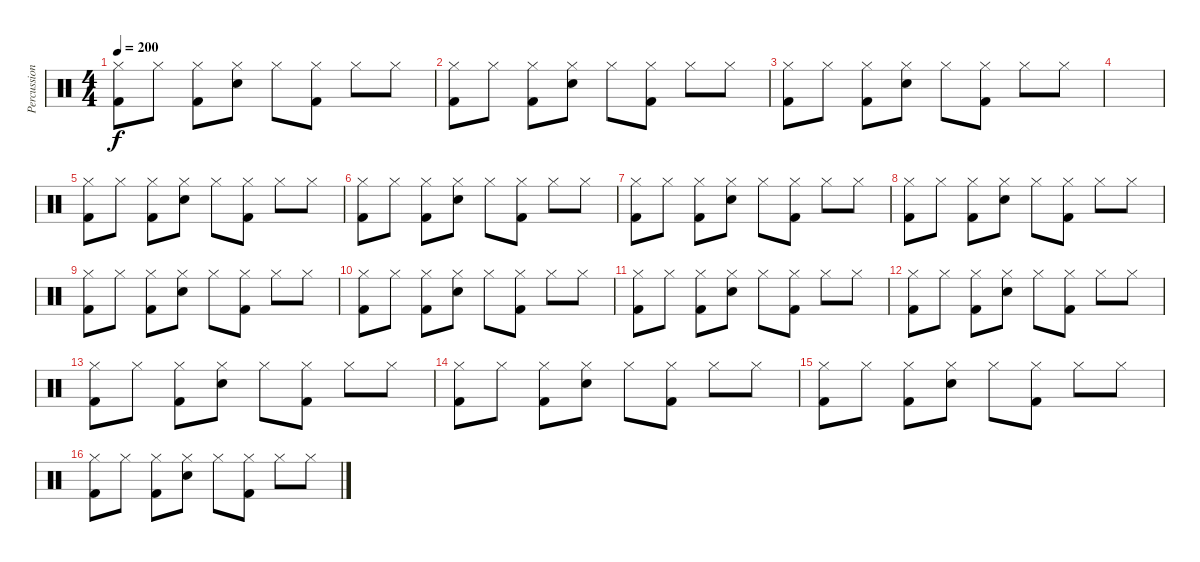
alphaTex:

\track ("Percussion" "Percussion") {instrument percussion}
\staff {score}
\articulation defaults
\ts (4 4)
\tempo 200
\clef neutral
\ks c
("Hi-Hat (closed)" "Kick (hit) 2").8{dy f} "Hi-Hat (closed)".8 ("Hi-Hat (closed)" "Kick (hit) 2").8 ("Hi-Hat (closed)" "Snare (hit) 2").8 "Hi-Hat (closed)".8 ("Hi-Hat (closed)" "Kick (hit) 2").8 "Hi-Hat (closed)".8 "Hi-Hat (closed)".8 |
("Hi-Hat (closed)" "Kick (hit) 2").8 "Hi-Hat (closed)".8 ("Hi-Hat (closed)" "Kick (hit) 2").8 ("Hi-Hat (closed)" "Snare (hit) 2").8 "Hi-Hat (closed)".8 ("Hi-Hat (closed)" "Kick (hit) 2").8 "Hi-Hat (closed)".8 "Hi-Hat (closed)".8 |
("Hi-Hat (closed)" "Kick (hit) 2").8 "Hi-Hat (closed)".8 ("Hi-Hat (closed)" "Kick (hit) 2").8 ("Hi-Hat (closed)" "Snare (hit) 2").8 "Hi-Hat (closed)".8 ("Hi-Hat (closed)" "Kick (hit) 2").8 "Hi-Hat (closed)".8 "Hi-Hat (closed)".8 |
|
("Hi-Hat (closed)" "Kick (hit) 2").8 "Hi-Hat (closed)".8 ("Hi-Hat (closed)" "Kick (hit) 2").8 ("Hi-Hat (closed)" "Snare (hit) 2").8 "Hi-Hat (closed)".8 ("Hi-Hat (closed)" "Kick (hit) 2").8 "Hi-Hat (closed)".8 "Hi-Hat (closed)".8 |
("Hi-Hat (closed)" "Kick (hit) 2").8 "Hi-Hat (closed)".8 ("Hi-Hat (closed)" "Kick (hit) 2").8 ("Hi-Hat (closed)" "Snare (hit) 2").8 "Hi-Hat (closed)".8 ("Hi-Hat (closed)" "Kick (hit) 2").8 "Hi-Hat (closed)".8 "Hi-Hat (closed)".8 |
("Hi-Hat (closed)" "Kick (hit) 2").8 "Hi-Hat (closed)".8 ("Hi-Hat (closed)" "Kick (hit) 2").8 ("Hi-Hat (closed)" "Snare (hit) 2").8 "Hi-Hat (closed)".8 ("Hi-Hat (closed)" "Kick (hit) 2").8 "Hi-Hat (closed)".8 "Hi-Hat (closed)".8 |
("Hi-Hat (closed)" "Kick (hit) 2").8 "Hi-Hat (closed)".8 ("Hi-Hat (closed)" "Kick (hit) 2").8 ("Hi-Hat (closed)" "Snare (hit) 2").8 "Hi-Hat (closed)".8 ("Hi-Hat (closed)" "Kick (hit) 2").8 "Hi-Hat (closed)".8 "Hi-Hat (closed)".8 |
("Hi-Hat (closed)" "Kick (hit) 2").8 "Hi-Hat (closed)".8 ("Hi-Hat (closed)" "Kick (hit) 2").8 ("Hi-Hat (closed)" "Snare (hit) 2").8 "Hi-Hat (closed)".8 ("Hi-Hat (closed)" "Kick (hit) 2").8 "Hi-Hat (closed)".8 "Hi-Hat (closed)".8 |
("Hi-Hat (closed)" "Kick (hit) 2").8 "Hi-Hat (closed)".8 ("Hi-Hat (closed)" "Kick (hit) 2").8 ("Hi-Hat (closed)" "Snare (hit) 2").8 "Hi-Hat (closed)".8 ("Hi-Hat (closed)" "Kick (hit) 2").8 "Hi-Hat (closed)".8 "Hi-Hat (closed)".8 |
("Hi-Hat (closed)" "Kick (hit) 2").8 "Hi-Hat (closed)".8 ("Hi-Hat (closed)" "Kick (hit) 2").8 ("Hi-Hat (closed)" "Snare (hit) 2").8 "Hi-Hat (closed)".8 ("Hi-Hat (closed)" "Kick (hit) 2").8 "Hi-Hat (closed)".8 "Hi-Hat (closed)".8 |
("Hi-Hat (closed)" "Kick (hit) 2").8 "Hi-Hat (closed)".8 ("Hi-Hat (closed)" "Kick (hit) 2").8 ("Hi-Hat (closed)" "Snare (hit) 2").8 "Hi-Hat (closed)".8 ("Hi-Hat (closed)" "Kick (hit) 2").8 "Hi-Hat (closed)".8 "Hi-Hat (closed)".8 |
("Hi-Hat (closed)" "Kick (hit) 2").8 "Hi-Hat (closed)".8 ("Hi-Hat (closed)" "Kick (hit) 2").8 ("Hi-Hat (closed)" "Snare (hit) 2").8 "Hi-Hat (closed)".8 ("Hi-Hat (closed)" "Kick (hit) 2").8 "Hi-Hat (closed)".8 "Hi-Hat (closed)".8 |
("Hi-Hat (closed)" "Kick (hit) 2").8 "Hi-Hat (closed)".8 ("Hi-Hat (closed)" "Kick (hit) 2").8 ("Hi-Hat (closed)" "Snare (hit) 2").8 "Hi-Hat (closed)".8 ("Hi-Hat (closed)" "Kick (hit) 2").8 "Hi-Hat (closed)".8 "Hi-Hat (closed)".8 |
("Hi-Hat (closed)" "Kick (hit) 2").8 "Hi-Hat (closed)".8 ("Hi-Hat (closed)" "Kick (hit) 2").8 ("Hi-Hat (closed)" "Snare (hit) 2").8 "Hi-Hat (closed)".8 ("Hi-Hat (closed)" "Kick (hit) 2").8 "Hi-Hat (closed)".8 "Hi-Hat (closed)".8 |
("Hi-Hat (closed)" "Kick (hit) 2").8 "Hi-Hat (closed)".8 ("Hi-Hat (closed)" "Kick (hit) 2").8 ("Hi-Hat (closed)" "Snare (hit) 2").8 "Hi-Hat (closed)".8 ("Hi-Hat (closed)" "Kick (hit) 2").8 "Hi-Hat (closed)".8 "Hi-Hat (closed)".8
